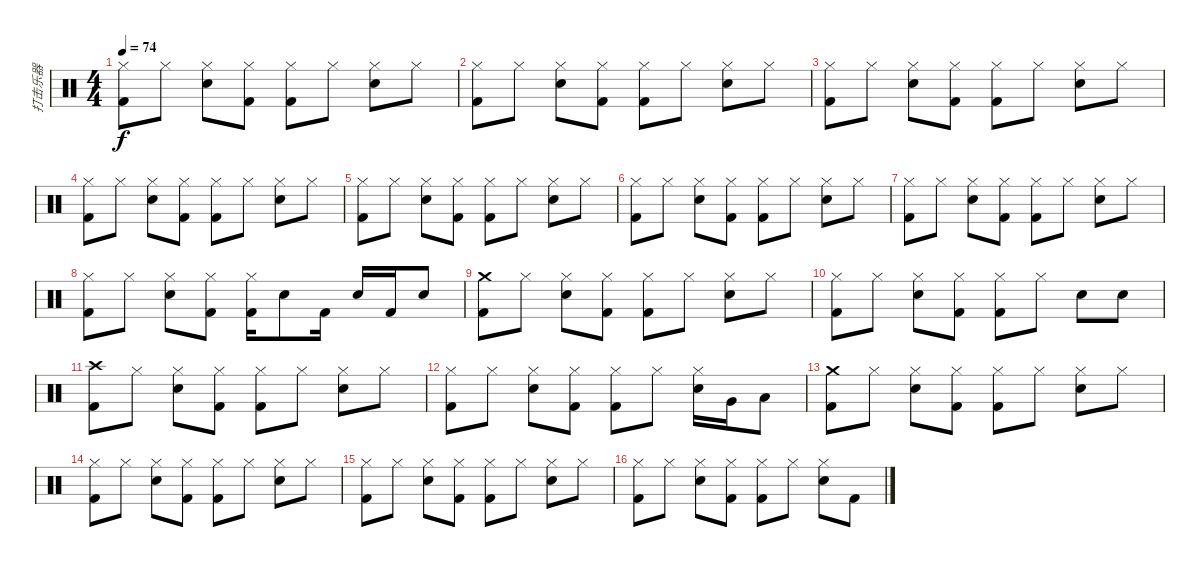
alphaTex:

\track ("打击乐器" "打击乐器") {instrument percussion}
\staff {score}
\articulation defaults
\ts (4 4)
\tempo 74
\clef neutral
\ks c
("Hi-Hat (closed)" "Kick (hit) 2").8{dy f} "Hi-Hat (closed)".8 ("Electric Snare (hit)" "Hi-Hat (closed)").8 ("Kick (hit) 2" "Hi-Hat (closed)").8 ("Kick (hit) 2" "Hi-Hat (closed)").8 "Hi-Hat (closed)".8 ("Electric Snare (hit)" "Hi-Hat (closed)").8 "Hi-Hat (closed)".8 |
("Hi-Hat (closed)" "Kick (hit) 2").8 "Hi-Hat (closed)".8 ("Electric Snare (hit)" "Hi-Hat (closed)").8 ("Kick (hit) 2" "Hi-Hat (closed)").8 ("Kick (hit) 2" "Hi-Hat (closed)").8 "Hi-Hat (closed)".8 ("Electric Snare (hit)" "Hi-Hat (closed)").8 "Hi-Hat (closed)".8 |
("Hi-Hat (closed)" "Kick (hit) 2").8 "Hi-Hat (closed)".8 ("Electric Snare (hit)" "Hi-Hat (closed)").8 ("Kick (hit) 2" "Hi-Hat (closed)").8 ("Kick (hit) 2" "Hi-Hat (closed)").8 "Hi-Hat (closed)".8 ("Electric Snare (hit)" "Hi-Hat (closed)").8 "Hi-Hat (closed)".8 |
("Hi-Hat (closed)" "Kick (hit) 2").8 "Hi-Hat (closed)".8 ("Electric Snare (hit)" "Hi-Hat (closed)").8 ("Kick (hit) 2" "Hi-Hat (closed)").8 ("Kick (hit) 2" "Hi-Hat (closed)").8 "Hi-Hat (closed)".8 ("Electric Snare (hit)" "Hi-Hat (closed)").8 "Hi-Hat (closed)".8 |
("Hi-Hat (closed)" "Kick (hit) 2").8 "Hi-Hat (closed)".8 ("Electric Snare (hit)" "Hi-Hat (closed)").8 ("Kick (hit) 2" "Hi-Hat (closed)").8 ("Kick (hit) 2" "Hi-Hat (closed)").8 "Hi-Hat (closed)".8 ("Electric Snare (hit)" "Hi-Hat (closed)").8 "Hi-Hat (closed)".8 |
("Hi-Hat (closed)" "Kick (hit) 2").8 "Hi-Hat (closed)".8 ("Electric Snare (hit)" "Hi-Hat (closed)").8 ("Kick (hit) 2" "Hi-Hat (closed)").8 ("Kick (hit) 2" "Hi-Hat (closed)").8 "Hi-Hat (closed)".8 ("Electric Snare (hit)" "Hi-Hat (closed)").8 "Hi-Hat (closed)".8 |
("Hi-Hat (closed)" "Kick (hit) 2").8 "Hi-Hat (closed)".8 ("Electric Snare (hit)" "Hi-Hat (closed)").8 ("Kick (hit) 2" "Hi-Hat (closed)").8 ("Kick (hit) 2" "Hi-Hat (closed)").8 "Hi-Hat (closed)".8 ("Electric Snare (hit)" "Hi-Hat (closed)").8 "Hi-Hat (closed)".8 |
("Hi-Hat (closed)" "Kick (hit) 2").8 "Hi-Hat (closed)".8 ("Electric Snare (hit)" "Hi-Hat (closed)").8 ("Kick (hit) 2" "Hi-Hat (closed)").8 ("Kick (hit) 2" "Hi-Hat (closed)").16 "Electric Snare (hit)".8 "Kick (hit) 2".16 "Electric Snare (hit)".16 "Kick (hit) 2".16 "Electric Snare (hit)".8 |
("Crash medium (hit)" "Kick (hit) 2").8 "Hi-Hat (closed)".8 ("Electric Snare (hit)" "Hi-Hat (closed)").8 ("Kick (hit) 2" "Hi-Hat (closed)").8 ("Kick (hit) 2" "Hi-Hat (closed)").8 "Hi-Hat (closed)".8 ("Electric Snare (hit)" "Hi-Hat (closed)").8 "Hi-Hat (closed)".8 |
("Hi-Hat (closed)" "Kick (hit) 2").8 "Hi-Hat (closed)".8 ("Electric Snare (hit)" "Hi-Hat (closed)").8 ("Kick (hit) 2" "Hi-Hat (closed)").8 ("Kick (hit) 2" "Hi-Hat (closed)").8 "Hi-Hat (closed)".8 "Electric Snare (hit)".8 "Electric Snare (hit)".8 |
("Crash high (hit)" "Kick (hit) 2").8 "Hi-Hat (closed)".8 ("Electric Snare (hit)" "Hi-Hat (closed)").8 ("Kick (hit) 2" "Hi-Hat (closed)").8 ("Kick (hit) 2" "Hi-Hat (closed)").8 "Hi-Hat (closed)".8 ("Electric Snare (hit)" "Hi-Hat (closed)").8 "Hi-Hat (closed)".8 |
("Hi-Hat (closed)" "Kick (hit) 2").8 "Hi-Hat (closed)".8 ("Electric Snare (hit)" "Hi-Hat (closed)").8 ("Kick (hit) 2" "Hi-Hat (closed)").8 ("Kick (hit) 2" "Hi-Hat (closed)").8 "Hi-Hat (closed)".8 ("Electric Snare (hit)" "Hi-Hat (closed)").16 "Very Low Tom (hit)".16 "Low Floor Tom (hit)".8 |
("Crash medium (hit)" "Kick (hit) 2").8 "Hi-Hat (closed)".8 ("Electric Snare (hit)" "Hi-Hat (closed)").8 ("Kick (hit) 2" "Hi-Hat (closed)").8 ("Kick (hit) 2" "Hi-Hat (closed)").8 "Hi-Hat (closed)".8 ("Electric Snare (hit)" "Hi-Hat (closed)").8 "Hi-Hat (closed)".8 |
("Hi-Hat (closed)" "Kick (hit) 2").8 "Hi-Hat (closed)".8 ("Electric Snare (hit)" "Hi-Hat (closed)").8 ("Kick (hit) 2" "Hi-Hat (closed)").8 ("Kick (hit) 2" "Hi-Hat (closed)").8 "Hi-Hat (closed)".8 ("Electric Snare (hit)" "Hi-Hat (closed)").8 "Hi-Hat (closed)".8 |
("Hi-Hat (closed)" "Kick (hit) 2").8 "Hi-Hat (closed)".8 ("Electric Snare (hit)" "Hi-Hat (closed)").8 ("Kick (hit) 2" "Hi-Hat (closed)").8 ("Kick (hit) 2" "Hi-Hat (closed)").8 "Hi-Hat (closed)".8 ("Electric Snare (hit)" "Hi-Hat (closed)").8 "Hi-Hat (closed)".8 |
("Hi-Hat (closed)" "Kick (hit) 2").8 "Hi-Hat (closed)".8 ("Electric Snare (hit)" "Hi-Hat (closed)").8 ("Kick (hit) 2" "Hi-Hat (closed)").8 ("Kick (hit) 2" "Hi-Hat (closed)").8 "Hi-Hat (closed)".8 ("Electric Snare (hit)" "Hi-Hat (closed)").8 "Kick (hit) 2".8
